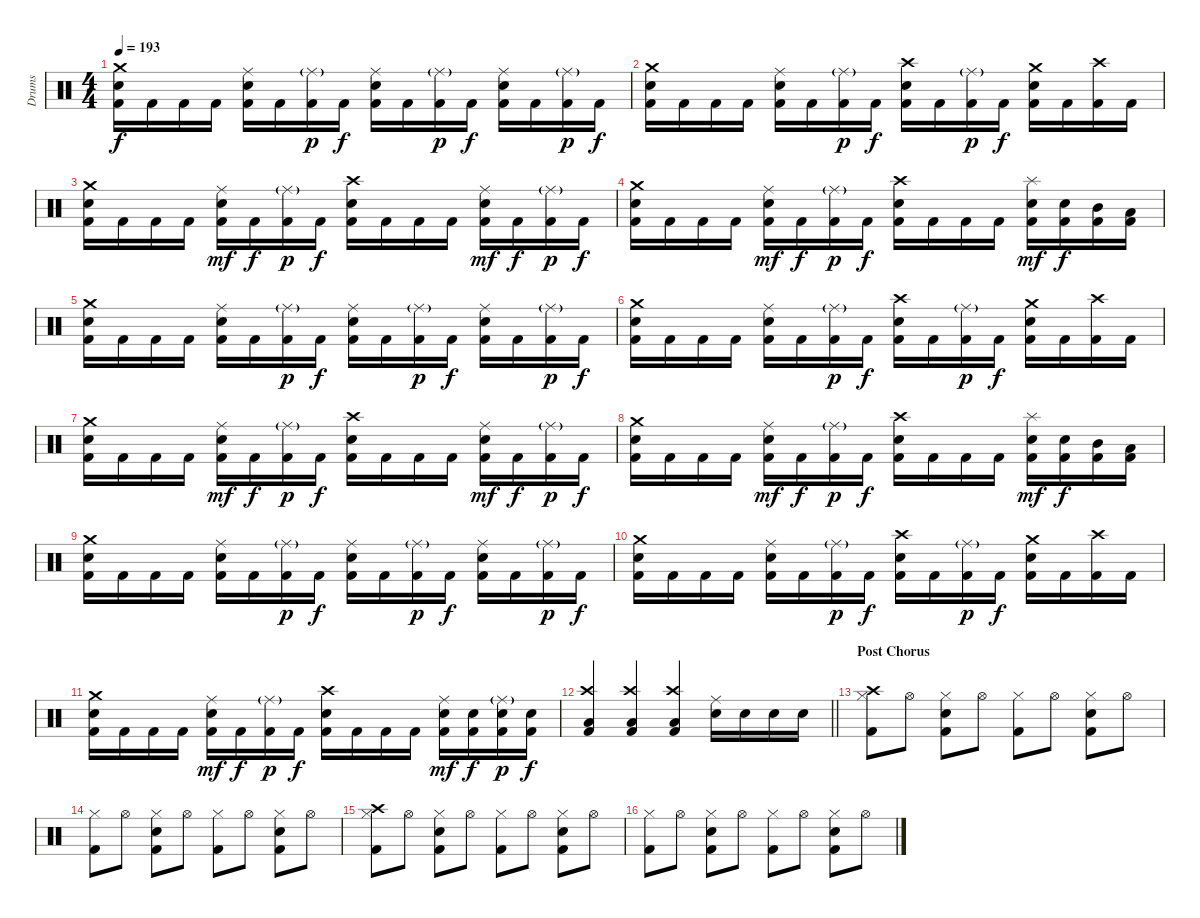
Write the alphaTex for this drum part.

\track ("Drums" "Drums") {instrument percussion}
\staff {score}
\articulation defaults
\ts (4 4)
\tempo 193
\clef neutral
\ks c
("Crash medium (hit)" "Snare (hit) 2" "Kick (hit) 2").16{dy f} "Kick (hit) 2".16 "Kick (hit) 2".16 "Kick (hit) 2".16 ("Ride (middle)" "Snare (hit) 2" "Kick (hit) 2").16 "Kick (hit) 2".16 ("Ride (middle)"{g} "Kick (hit) 2").16{dy p} "Kick (hit) 2".16{dy f} ("Ride (middle)" "Snare (hit) 2" "Kick (hit) 2").16 "Kick (hit) 2".16 ("Ride (middle)"{g} "Kick (hit) 2").16{dy p} "Kick (hit) 2".16{dy f} ("Ride (middle)" "Snare (hit) 2" "Kick (hit) 2").16 "Kick (hit) 2".16 ("Ride (middle)"{g} "Kick (hit) 2").16{dy p} "Kick (hit) 2".16{dy f} |
("Crash medium (hit)" "Snare (hit) 2" "Kick (hit) 2").16 "Kick (hit) 2".16 "Kick (hit) 2".16 "Kick (hit) 2".16 ("Ride (middle)" "Snare (hit) 2" "Kick (hit) 2").16 "Kick (hit) 2".16 ("Ride (middle)"{g} "Kick (hit) 2").16{dy p} "Kick (hit) 2".16{dy f} ("Crash high (hit)" "Snare (hit) 2" "Kick (hit) 2").16 "Kick (hit) 2".16 ("Ride (middle)"{g} "Kick (hit) 2").16{dy p} "Kick (hit) 2".16{dy f} ("Crash medium (hit)" "Snare (hit) 2" "Kick (hit) 2").16 "Kick (hit) 2".16 ("Crash high (hit)" "Kick (hit) 2").16 "Kick (hit) 2".16 |
("Crash medium (hit)" "Snare (hit) 2" "Kick (hit) 2").16 "Kick (hit) 2".16 "Kick (hit) 2".16 "Kick (hit) 2".16 ("Ride (middle)" "Snare (hit) 2" "Kick (hit) 2").16{dy mf} "Kick (hit) 2".16{dy f} ("Ride (middle)"{g} "Kick (hit) 2").16{dy p} "Kick (hit) 2".16{dy f} ("Crash high (hit)" "Snare (hit) 2" "Kick (hit) 2").16 "Kick (hit) 2".16 "Kick (hit) 2".16 "Kick (hit) 2".16 ("Ride (middle)" "Snare (hit) 2" "Kick (hit) 2").16{dy mf} "Kick (hit) 2".16{dy f} ("Ride (middle)"{g} "Kick (hit) 2").16{dy p} "Kick (hit) 2".16{dy f} |
("Crash medium (hit)" "Snare (hit) 2" "Kick (hit) 2").16 "Kick (hit) 2".16 "Kick (hit) 2".16 "Kick (hit) 2".16 ("Ride (middle)" "Snare (hit) 2" "Kick (hit) 2").16{dy mf} "Kick (hit) 2".16{dy f} ("Ride (middle)"{g} "Kick (hit) 2").16{dy p} "Kick (hit) 2".16{dy f} ("Crash high (hit)" "Snare (hit) 2" "Kick (hit) 2").16 "Kick (hit) 2".16 "Kick (hit) 2".16 "Kick (hit) 2".16 ("Splash (hit)" "Snare (hit) 2" "Kick (hit) 2").16{dy mf} ("Snare (hit) 2" "Kick (hit) 2").16{dy f} ("Mid Tom (hit)" "Kick (hit) 2").16 ("Low Tom (hit)" "Kick (hit) 2").16 |
("Crash medium (hit)" "Snare (hit) 2" "Kick (hit) 2").16 "Kick (hit) 2".16 "Kick (hit) 2".16 "Kick (hit) 2".16 ("Ride (middle)" "Snare (hit) 2" "Kick (hit) 2").16 "Kick (hit) 2".16 ("Ride (middle)"{g} "Kick (hit) 2").16{dy p} "Kick (hit) 2".16{dy f} ("Ride (middle)" "Snare (hit) 2" "Kick (hit) 2").16 "Kick (hit) 2".16 ("Ride (middle)"{g} "Kick (hit) 2").16{dy p} "Kick (hit) 2".16{dy f} ("Ride (middle)" "Snare (hit) 2" "Kick (hit) 2").16 "Kick (hit) 2".16 ("Ride (middle)"{g} "Kick (hit) 2").16{dy p} "Kick (hit) 2".16{dy f} |
("Crash medium (hit)" "Snare (hit) 2" "Kick (hit) 2").16 "Kick (hit) 2".16 "Kick (hit) 2".16 "Kick (hit) 2".16 ("Ride (middle)" "Snare (hit) 2" "Kick (hit) 2").16 "Kick (hit) 2".16 ("Ride (middle)"{g} "Kick (hit) 2").16{dy p} "Kick (hit) 2".16{dy f} ("Crash high (hit)" "Snare (hit) 2" "Kick (hit) 2").16 "Kick (hit) 2".16 ("Ride (middle)"{g} "Kick (hit) 2").16{dy p} "Kick (hit) 2".16{dy f} ("Crash medium (hit)" "Snare (hit) 2" "Kick (hit) 2").16 "Kick (hit) 2".16 ("Crash high (hit)" "Kick (hit) 2").16 "Kick (hit) 2".16 |
("Crash medium (hit)" "Snare (hit) 2" "Kick (hit) 2").16 "Kick (hit) 2".16 "Kick (hit) 2".16 "Kick (hit) 2".16 ("Ride (middle)" "Snare (hit) 2" "Kick (hit) 2").16{dy mf} "Kick (hit) 2".16{dy f} ("Ride (middle)"{g} "Kick (hit) 2").16{dy p} "Kick (hit) 2".16{dy f} ("Crash high (hit)" "Snare (hit) 2" "Kick (hit) 2").16 "Kick (hit) 2".16 "Kick (hit) 2".16 "Kick (hit) 2".16 ("Ride (middle)" "Snare (hit) 2" "Kick (hit) 2").16{dy mf} "Kick (hit) 2".16{dy f} ("Ride (middle)"{g} "Kick (hit) 2").16{dy p} "Kick (hit) 2".16{dy f} |
("Crash medium (hit)" "Snare (hit) 2" "Kick (hit) 2").16 "Kick (hit) 2".16 "Kick (hit) 2".16 "Kick (hit) 2".16 ("Ride (middle)" "Snare (hit) 2" "Kick (hit) 2").16{dy mf} "Kick (hit) 2".16{dy f} ("Ride (middle)"{g} "Kick (hit) 2").16{dy p} "Kick (hit) 2".16{dy f} ("Crash high (hit)" "Snare (hit) 2" "Kick (hit) 2").16 "Kick (hit) 2".16 "Kick (hit) 2".16 "Kick (hit) 2".16 ("Splash (hit)" "Snare (hit) 2" "Kick (hit) 2").16{dy mf} ("Snare (hit) 2" "Kick (hit) 2").16{dy f} ("Mid Tom (hit)" "Kick (hit) 2").16 ("Low Tom (hit)" "Kick (hit) 2").16 |
("Crash medium (hit)" "Snare (hit) 2" "Kick (hit) 2").16 "Kick (hit) 2".16 "Kick (hit) 2".16 "Kick (hit) 2".16 ("Ride (middle)" "Snare (hit) 2" "Kick (hit) 2").16 "Kick (hit) 2".16 ("Ride (middle)"{g} "Kick (hit) 2").16{dy p} "Kick (hit) 2".16{dy f} ("Ride (middle)" "Snare (hit) 2" "Kick (hit) 2").16 "Kick (hit) 2".16 ("Ride (middle)"{g} "Kick (hit) 2").16{dy p} "Kick (hit) 2".16{dy f} ("Ride (middle)" "Snare (hit) 2" "Kick (hit) 2").16 "Kick (hit) 2".16 ("Ride (middle)"{g} "Kick (hit) 2").16{dy p} "Kick (hit) 2".16{dy f} |
("Crash medium (hit)" "Snare (hit) 2" "Kick (hit) 2").16 "Kick (hit) 2".16 "Kick (hit) 2".16 "Kick (hit) 2".16 ("Ride (middle)" "Snare (hit) 2" "Kick (hit) 2").16 "Kick (hit) 2".16 ("Ride (middle)"{g} "Kick (hit) 2").16{dy p} "Kick (hit) 2".16{dy f} ("Crash high (hit)" "Snare (hit) 2" "Kick (hit) 2").16 "Kick (hit) 2".16 ("Ride (middle)"{g} "Kick (hit) 2").16{dy p} "Kick (hit) 2".16{dy f} ("Crash medium (hit)" "Snare (hit) 2" "Kick (hit) 2").16 "Kick (hit) 2".16 ("Crash high (hit)" "Kick (hit) 2").16 "Kick (hit) 2".16 |
("Crash medium (hit)" "Snare (hit) 2" "Kick (hit) 2").16 "Kick (hit) 2".16 "Kick (hit) 2".16 "Kick (hit) 2".16 ("Ride (middle)" "Snare (hit) 2" "Kick (hit) 2").16{dy mf} "Kick (hit) 2".16{dy f} ("Ride (middle)"{g} "Kick (hit) 2").16{dy p} "Kick (hit) 2".16{dy f} ("Crash high (hit)" "Snare (hit) 2" "Kick (hit) 2").16 "Kick (hit) 2".16 "Kick (hit) 2".16 "Kick (hit) 2".16 ("Ride (middle)" "Snare (hit) 2" "Kick (hit) 2").16{dy mf} ("Snare (hit) 2" "Kick (hit) 2").16{dy f} ("Ride (middle)"{g} "Snare (hit) 2" "Kick (hit) 2").16{dy p} ("Snare (hit) 2" "Kick (hit) 2").16{dy f} |
\barLineRight lightlight
("Crash high (hit)" "Low Floor Tom (hit)" "Kick (hit) 2").4 ("Crash high (hit)" "Low Floor Tom (hit)" "Kick (hit) 2").4 ("Crash high (hit)" "Low Floor Tom (hit)" "Kick (hit) 2").4 ("Ride (middle)" "Snare (hit) 2").16 "Snare (hit) 2".16 "Snare (hit) 2".16 "Snare (hit) 2".16 |
\section ("" "Post Chorus")
("Crash high (hit)" "Hi-Hat (closed)" "Kick (hit) 2").8 "Hi-Hat (open)".8 ("Hi-Hat (closed)" "Snare (hit) 2" "Kick (hit) 2").8 "Hi-Hat (open)".8 ("Hi-Hat (closed)" "Kick (hit) 2").8 "Hi-Hat (open)".8 ("Hi-Hat (closed)" "Snare (hit) 2" "Kick (hit) 2").8 "Hi-Hat (open)".8 |
("Hi-Hat (closed)" "Kick (hit) 2").8 "Hi-Hat (open)".8 ("Hi-Hat (closed)" "Snare (hit) 2" "Kick (hit) 2").8 "Hi-Hat (open)".8 ("Hi-Hat (closed)" "Kick (hit) 2").8 "Hi-Hat (open)".8 ("Hi-Hat (closed)" "Snare (hit) 2" "Kick (hit) 2").8 "Hi-Hat (open)".8 |
("Crash high (hit)" "Hi-Hat (closed)" "Kick (hit) 2").8 "Hi-Hat (open)".8 ("Hi-Hat (closed)" "Snare (hit) 2" "Kick (hit) 2").8 "Hi-Hat (open)".8 ("Hi-Hat (closed)" "Kick (hit) 2").8 "Hi-Hat (open)".8 ("Hi-Hat (closed)" "Snare (hit) 2" "Kick (hit) 2").8 "Hi-Hat (open)".8 |
("Hi-Hat (closed)" "Kick (hit) 2").8 "Hi-Hat (open)".8 ("Hi-Hat (closed)" "Snare (hit) 2" "Kick (hit) 2").8 "Hi-Hat (open)".8 ("Hi-Hat (closed)" "Kick (hit) 2").8 "Hi-Hat (open)".8 ("Hi-Hat (closed)" "Snare (hit) 2" "Kick (hit) 2").8 "Hi-Hat (open)".8
